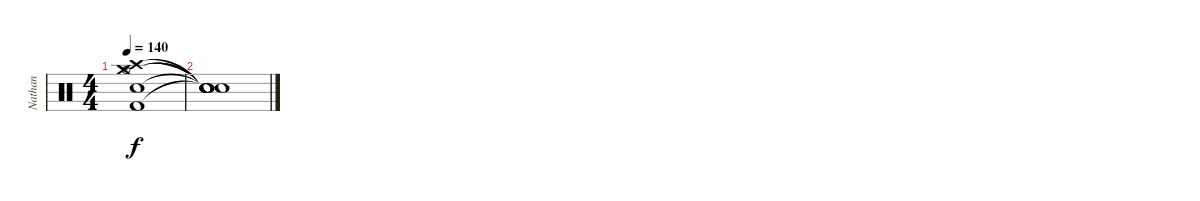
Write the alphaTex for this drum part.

\track ("Nathan" "Nathan") {instrument percussion}
\staff {score}
\articulation defaults
\ts (4 4)
\tempo 140
\clef neutral
\ks c
("Crash medium (hit)" "Hi-Hat (open)" "Crash high (hit)" "Snare (hit) 2" "Kick (hit) 2").1{dy f} |
("Snare (hit)"{t} "Snare (hit)"{t} "Snare (hit)"{t} "Snare (hit)"{t} "Snare (hit)"{t}).1
